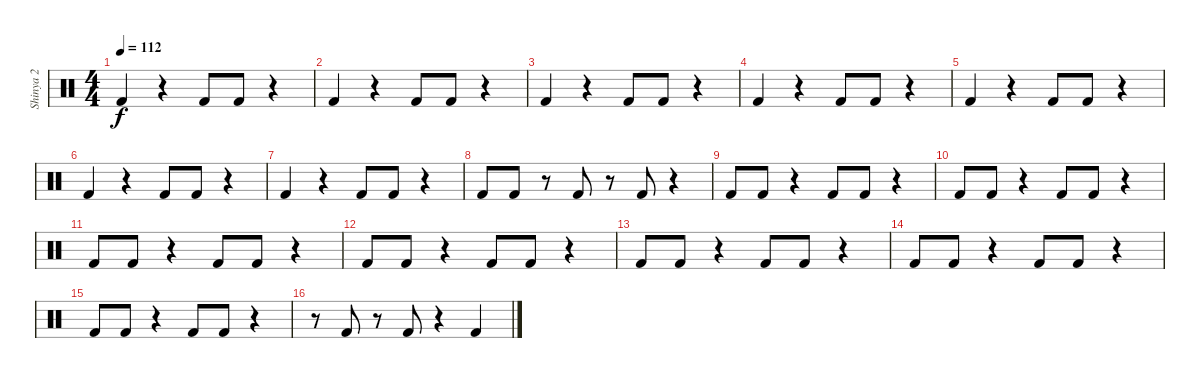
\track ("Shinya 2" "Shinya 2") {instrument percussion}
\staff {score}
\articulation defaults
\ts (4 4)
\tempo 112
\clef neutral
\ks c "Kick (hit) 2".4{dy f}
r.4 "Kick (hit) 2".8 "Kick (hit) 2".8 r.4 |
"Kick (hit) 2".4 r.4 "Kick (hit) 2".8 "Kick (hit) 2".8 r.4 |
"Kick (hit) 2".4 r.4 "Kick (hit) 2".8 "Kick (hit) 2".8 r.4 |
"Kick (hit) 2".4 r.4 "Kick (hit) 2".8 "Kick (hit) 2".8 r.4 |
"Kick (hit) 2".4 r.4 "Kick (hit) 2".8 "Kick (hit) 2".8 r.4 |
"Kick (hit) 2".4 r.4 "Kick (hit) 2".8 "Kick (hit) 2".8 r.4 |
"Kick (hit) 2".4 r.4 "Kick (hit) 2".8 "Kick (hit) 2".8 r.4 |
"Kick (hit) 2".8 "Kick (hit) 2".8 r.8 "Kick (hit) 2".8 r.8 "Kick (hit) 2".8 r.4 |
"Kick (hit) 2".8 "Kick (hit) 2".8 r.4 "Kick (hit) 2".8 "Kick (hit) 2".8 r.4 |
"Kick (hit) 2".8 "Kick (hit) 2".8 r.4 "Kick (hit) 2".8 "Kick (hit) 2".8 r.4 |
"Kick (hit) 2".8 "Kick (hit) 2".8 r.4 "Kick (hit) 2".8 "Kick (hit) 2".8 r.4 |
"Kick (hit) 2".8 "Kick (hit) 2".8 r.4 "Kick (hit) 2".8 "Kick (hit) 2".8 r.4 |
"Kick (hit) 2".8 "Kick (hit) 2".8 r.4 "Kick (hit) 2".8 "Kick (hit) 2".8 r.4 |
"Kick (hit) 2".8 "Kick (hit) 2".8 r.4 "Kick (hit) 2".8 "Kick (hit) 2".8 r.4 |
"Kick (hit) 2".8 "Kick (hit) 2".8 r.4 "Kick (hit) 2".8 "Kick (hit) 2".8 r.4 |
r.8 "Kick (hit) 2".8 r.8 "Kick (hit) 2".8 r.4 "Kick (hit) 2".4
